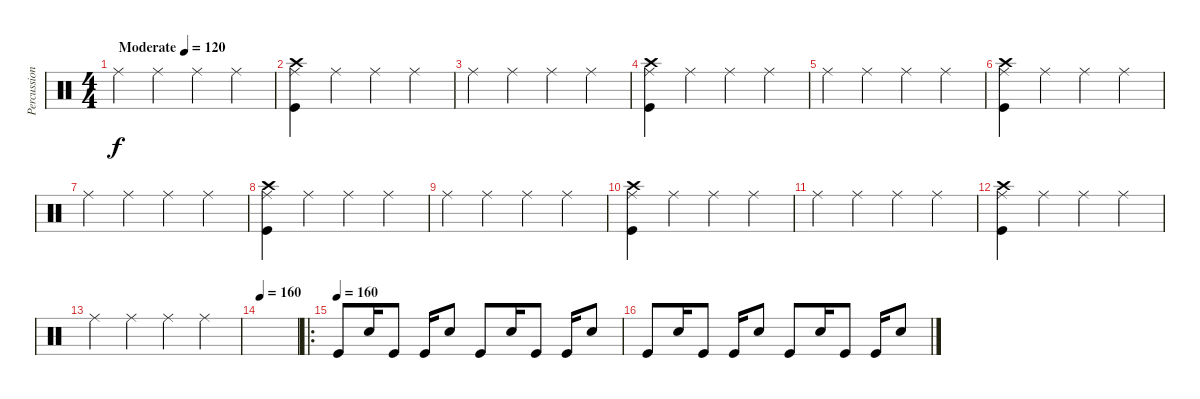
\track ("Percussions" "Percussion") {instrument percussion}
\staff {score}
\articulation defaults
\ts (4 4)
\tempo (120 "Moderate")
\clef neutral
\ks c "Ride (middle)".4{dy f} "Ride (middle)".4 "Ride (middle)".4 "Ride (middle)".4
|
("Ride (middle)" "Crash high (hit)" "Kick (hit)").4 "Ride (middle)".4 "Ride (middle)".4 "Ride (middle)".4 |
"Ride (middle)".4 "Ride (middle)".4 "Ride (middle)".4 "Ride (middle)".4 |
("Ride (middle)" "Crash high (hit)" "Kick (hit)").4 "Ride (middle)".4 "Ride (middle)".4 "Ride (middle)".4 |
"Ride (middle)".4 "Ride (middle)".4 "Ride (middle)".4 "Ride (middle)".4 |
("Ride (middle)" "Crash high (hit)" "Kick (hit)").4 "Ride (middle)".4 "Ride (middle)".4 "Ride (middle)".4 |
"Ride (middle)".4 "Ride (middle)".4 "Ride (middle)".4 "Ride (middle)".4 |
("Ride (middle)" "Crash high (hit)" "Kick (hit)").4 "Ride (middle)".4 "Ride (middle)".4 "Ride (middle)".4 |
"Ride (middle)".4 "Ride (middle)".4 "Ride (middle)".4 "Ride (middle)".4 |
("Ride (middle)" "Crash high (hit)" "Kick (hit)").4 "Ride (middle)".4 "Ride (middle)".4 "Ride (middle)".4 |
"Ride (middle)".4 "Ride (middle)".4 "Ride (middle)".4 "Ride (middle)".4 |
("Ride (middle)" "Crash high (hit)" "Kick (hit)").4 "Ride (middle)".4 "Ride (middle)".4 "Ride (middle)".4 |
"Ride (middle)".4 "Ride (middle)".4 "Ride (middle)".4 "Ride (middle)".4 |
\tempo 160
|
\ro
\tempo (160)
"Kick (hit)".8 "Snare (hit) 2".16 "Kick (hit)".8 "Kick (hit)".16 "Snare (hit) 2".8 "Kick (hit)".8 "Snare (hit) 2".16 "Kick (hit)".8 "Kick (hit)".16 "Snare (hit) 2".8 |
"Kick (hit)".8 "Snare (hit) 2".16 "Kick (hit)".8 "Kick (hit)".16 "Snare (hit) 2".8 "Kick (hit)".8 "Snare (hit) 2".16 "Kick (hit)".8 "Kick (hit)".16 "Snare (hit) 2".8
